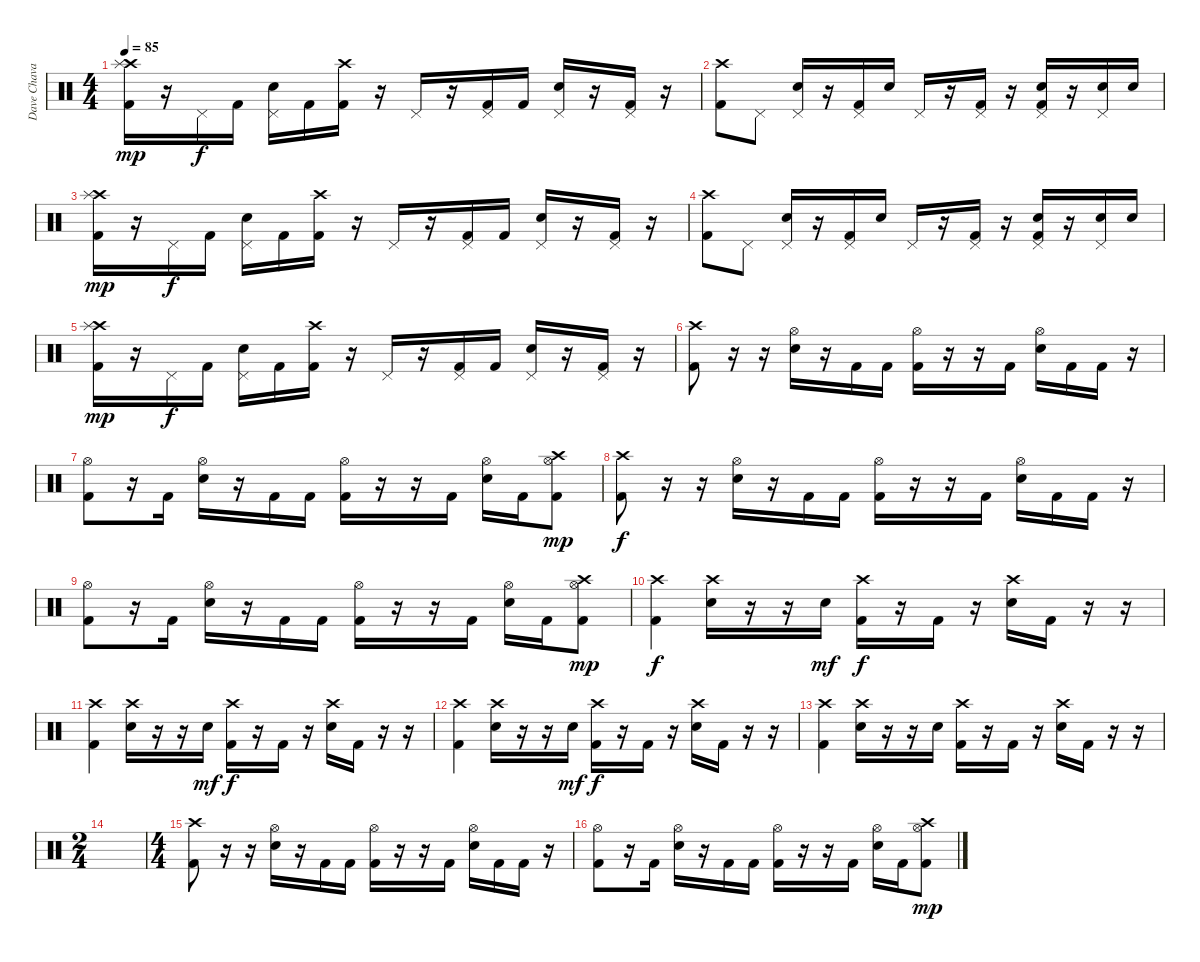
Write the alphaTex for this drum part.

\track ("Dave Chavarri" "Dave Chava") {instrument percussion}
\staff {score}
\articulation defaults
\ts (4 4)
\tempo 85
\clef neutral
\ks c
("Crash high (hit)" "Splash (hit)" "Kick (hit) 2").16{dy mp} r.16 "Pedal Hi-Hat (hit)".16{dy f} "Kick (hit) 2".16 ("Pedal Hi-Hat (hit)" "Snare (hit) 2").16 "Kick (hit) 2".16 ("Crash high (hit)" "Kick (hit) 2").16 r.16 "Pedal Hi-Hat (hit)".16 r.16 ("Pedal Hi-Hat (hit)" "Kick (hit) 2").16 "Kick (hit) 2".16 ("Pedal Hi-Hat (hit)" "Snare (hit) 2").16 r.16 ("Pedal Hi-Hat (hit)" "Kick (hit) 2").16 r.16 |
("Crash high (hit)" "Kick (hit) 2").8 "Pedal Hi-Hat (hit)".8 ("Pedal Hi-Hat (hit)" "Snare (hit) 2").16 r.16 ("Pedal Hi-Hat (hit)" "Kick (hit) 2").16 "Snare (hit) 2".16 "Pedal Hi-Hat (hit)".16 r.16 ("Pedal Hi-Hat (hit)" "Kick (hit) 2").16 r.16 ("Pedal Hi-Hat (hit)" "Snare (hit) 2" "Kick (hit) 2").16 r.16 ("Pedal Hi-Hat (hit)" "Snare (hit) 2").16 "Snare (hit) 2".16 |
("Crash high (hit)" "Splash (hit)" "Kick (hit) 2").16{dy mp} r.16 "Pedal Hi-Hat (hit)".16{dy f} "Kick (hit) 2".16 ("Pedal Hi-Hat (hit)" "Snare (hit) 2").16 "Kick (hit) 2".16 ("Crash high (hit)" "Kick (hit) 2").16 r.16 "Pedal Hi-Hat (hit)".16 r.16 ("Pedal Hi-Hat (hit)" "Kick (hit) 2").16 "Kick (hit) 2".16 ("Pedal Hi-Hat (hit)" "Snare (hit) 2").16 r.16 ("Pedal Hi-Hat (hit)" "Kick (hit) 2").16 r.16 |
("Crash high (hit)" "Kick (hit) 2").8 "Pedal Hi-Hat (hit)".8 ("Pedal Hi-Hat (hit)" "Snare (hit) 2").16 r.16 ("Pedal Hi-Hat (hit)" "Kick (hit) 2").16 "Snare (hit) 2".16 "Pedal Hi-Hat (hit)".16 r.16 ("Pedal Hi-Hat (hit)" "Kick (hit) 2").16 r.16 ("Pedal Hi-Hat (hit)" "Snare (hit) 2" "Kick (hit) 2").16 r.16 ("Pedal Hi-Hat (hit)" "Snare (hit) 2").16 "Snare (hit) 2".16 |
("Crash high (hit)" "Splash (hit)" "Kick (hit) 2").16{dy mp} r.16 "Pedal Hi-Hat (hit)".16{dy f} "Kick (hit) 2".16 ("Pedal Hi-Hat (hit)" "Snare (hit) 2").16 "Kick (hit) 2".16 ("Crash high (hit)" "Kick (hit) 2").16 r.16 "Pedal Hi-Hat (hit)".16 r.16 ("Pedal Hi-Hat (hit)" "Kick (hit) 2").16 "Kick (hit) 2".16 ("Pedal Hi-Hat (hit)" "Snare (hit) 2").16 r.16 ("Pedal Hi-Hat (hit)" "Kick (hit) 2").16 r.16 |
("Crash high (hit)" "Kick (hit) 2").8 r.16 r.16 ("Hi-Hat (open)" "Snare (hit) 2").16 r.16 "Kick (hit) 2".16 "Kick (hit) 2".16 ("Hi-Hat (open)" "Kick (hit) 2").16 r.16 r.16 "Kick (hit) 2".16 ("Hi-Hat (open)" "Snare (hit) 2").16 "Kick (hit) 2".16 "Kick (hit) 2".16 r.16 |
("Hi-Hat (open)" "Kick (hit) 2").8 r.16 "Kick (hit) 2".16 ("Hi-Hat (open)" "Snare (hit) 2").16 r.16 "Kick (hit) 2".16 "Kick (hit) 2".16 ("Hi-Hat (open)" "Kick (hit) 2").16 r.16 r.16 "Kick (hit) 2".16 ("Hi-Hat (open)" "Snare (hit) 2").16 "Kick (hit) 2".16 ("Crash high (hit)" "Hi-Hat (open)" "Kick (hit) 2").8{dy mp} |
("Crash high (hit)" "Kick (hit) 2").8{dy f} r.16 r.16 ("Hi-Hat (open)" "Snare (hit) 2").16 r.16 "Kick (hit) 2".16 "Kick (hit) 2".16 ("Hi-Hat (open)" "Kick (hit) 2").16 r.16 r.16 "Kick (hit) 2".16 ("Hi-Hat (open)" "Snare (hit) 2").16 "Kick (hit) 2".16 "Kick (hit) 2".16 r.16 |
("Hi-Hat (open)" "Kick (hit) 2").8 r.16 "Kick (hit) 2".16 ("Hi-Hat (open)" "Snare (hit) 2").16 r.16 "Kick (hit) 2".16 "Kick (hit) 2".16 ("Hi-Hat (open)" "Kick (hit) 2").16 r.16 r.16 "Kick (hit) 2".16 ("Hi-Hat (open)" "Snare (hit) 2").16 "Kick (hit) 2".16 ("Crash high (hit)" "Hi-Hat (open)" "Kick (hit) 2").8{dy mp} |
("Crash high (hit)" "Kick (hit) 2").4{dy f} ("Crash high (hit)" "Snare (hit) 2").16 r.16 r.16 "Snare (hit) 2".16{dy mf} ("Crash high (hit)" "Kick (hit) 2").16{dy f} r.16 "Kick (hit) 2".16 r.16 ("Crash high (hit)" "Snare (hit) 2").16 "Kick (hit) 2".16 r.16 r.16 |
("Crash high (hit)" "Kick (hit) 2").4 ("Crash high (hit)" "Snare (hit) 2").16 r.16 r.16 "Snare (hit) 2".16{dy mf} ("Crash high (hit)" "Kick (hit) 2").16{dy f} r.16 "Kick (hit) 2".16 r.16 ("Crash high (hit)" "Snare (hit) 2").16 "Kick (hit) 2".16 r.16 r.16 |
("Crash high (hit)" "Kick (hit) 2").4 ("Crash high (hit)" "Snare (hit) 2").16 r.16 r.16 "Snare (hit) 2".16{dy mf} ("Crash high (hit)" "Kick (hit) 2").16{dy f} r.16 "Kick (hit) 2".16 r.16 ("Crash high (hit)" "Snare (hit) 2").16 "Kick (hit) 2".16 r.16 r.16 |
("Crash high (hit)" "Kick (hit) 2").4 ("Crash high (hit)" "Snare (hit) 2").16 r.16 r.16 "Snare (hit) 2".16 ("Crash high (hit)" "Kick (hit) 2").16 r.16 "Kick (hit) 2".16 r.16 ("Crash high (hit)" "Snare (hit) 2").16 "Kick (hit) 2".16 r.16 r.16 |
\ts (2 4)
|
\ts (4 4)
("Crash high (hit)" "Kick (hit) 2").8 r.16 r.16 ("Hi-Hat (open)" "Snare (hit) 2").16 r.16 "Kick (hit) 2".16 "Kick (hit) 2".16 ("Hi-Hat (open)" "Kick (hit) 2").16 r.16 r.16 "Kick (hit) 2".16 ("Hi-Hat (open)" "Snare (hit) 2").16 "Kick (hit) 2".16 "Kick (hit) 2".16 r.16 |
("Hi-Hat (open)" "Kick (hit) 2").8 r.16 "Kick (hit) 2".16 ("Hi-Hat (open)" "Snare (hit) 2").16 r.16 "Kick (hit) 2".16 "Kick (hit) 2".16 ("Hi-Hat (open)" "Kick (hit) 2").16 r.16 r.16 "Kick (hit) 2".16 ("Hi-Hat (open)" "Snare (hit) 2").16 "Kick (hit) 2".16 ("Crash high (hit)" "Hi-Hat (open)" "Kick (hit) 2").8{dy mp}
